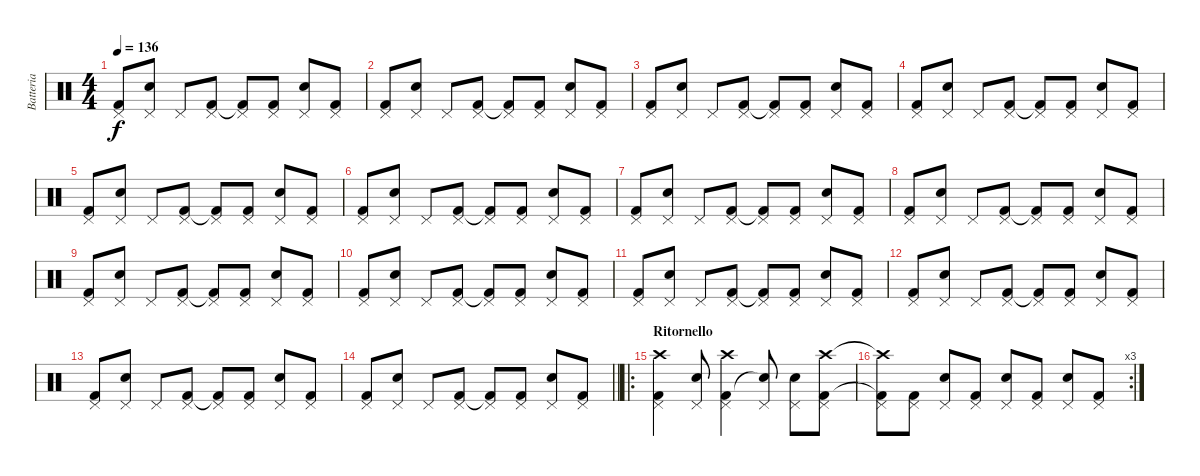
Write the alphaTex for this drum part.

\track ("Batteria" "Batteria") {instrument percussion}
\staff {score}
\articulation defaults
\ts (4 4)
\tempo 136
\clef neutral
\ks c
("Kick (hit) 2" "Pedal Hi-Hat (hit)").8{dy f} ("Electric Snare (hit)" "Pedal Hi-Hat (hit)").8 "Pedal Hi-Hat (hit)".8 ("Kick (hit) 2" "Pedal Hi-Hat (hit)").8 ("Kick (hit) 2"{t} "Pedal Hi-Hat (hit)").8 ("Kick (hit) 2" "Pedal Hi-Hat (hit)").8 ("Electric Snare (hit)" "Pedal Hi-Hat (hit)").8 ("Kick (hit) 2" "Pedal Hi-Hat (hit)").8 |
("Kick (hit) 2" "Pedal Hi-Hat (hit)").8 ("Electric Snare (hit)" "Pedal Hi-Hat (hit)").8 "Pedal Hi-Hat (hit)".8 ("Kick (hit) 2" "Pedal Hi-Hat (hit)").8 ("Kick (hit) 2"{t} "Pedal Hi-Hat (hit)").8 ("Kick (hit) 2" "Pedal Hi-Hat (hit)").8 ("Electric Snare (hit)" "Pedal Hi-Hat (hit)").8 ("Kick (hit) 2" "Pedal Hi-Hat (hit)").8 |
("Kick (hit) 2" "Pedal Hi-Hat (hit)").8 ("Electric Snare (hit)" "Pedal Hi-Hat (hit)").8 "Pedal Hi-Hat (hit)".8 ("Kick (hit) 2" "Pedal Hi-Hat (hit)").8 ("Kick (hit) 2"{t} "Pedal Hi-Hat (hit)").8 ("Kick (hit) 2" "Pedal Hi-Hat (hit)").8 ("Electric Snare (hit)" "Pedal Hi-Hat (hit)").8 ("Kick (hit) 2" "Pedal Hi-Hat (hit)").8 |
("Kick (hit) 2" "Pedal Hi-Hat (hit)").8 ("Electric Snare (hit)" "Pedal Hi-Hat (hit)").8 "Pedal Hi-Hat (hit)".8 ("Kick (hit) 2" "Pedal Hi-Hat (hit)").8 ("Kick (hit) 2"{t} "Pedal Hi-Hat (hit)").8 ("Kick (hit) 2" "Pedal Hi-Hat (hit)").8 ("Electric Snare (hit)" "Pedal Hi-Hat (hit)").8 ("Kick (hit) 2" "Pedal Hi-Hat (hit)").8 |
("Kick (hit) 2" "Pedal Hi-Hat (hit)").8 ("Electric Snare (hit)" "Pedal Hi-Hat (hit)").8 "Pedal Hi-Hat (hit)".8 ("Kick (hit) 2" "Pedal Hi-Hat (hit)").8 ("Kick (hit) 2"{t} "Pedal Hi-Hat (hit)").8 ("Kick (hit) 2" "Pedal Hi-Hat (hit)").8 ("Electric Snare (hit)" "Pedal Hi-Hat (hit)").8 ("Kick (hit) 2" "Pedal Hi-Hat (hit)").8 |
("Kick (hit) 2" "Pedal Hi-Hat (hit)").8 ("Electric Snare (hit)" "Pedal Hi-Hat (hit)").8 "Pedal Hi-Hat (hit)".8 ("Kick (hit) 2" "Pedal Hi-Hat (hit)").8 ("Kick (hit) 2"{t} "Pedal Hi-Hat (hit)").8 ("Kick (hit) 2" "Pedal Hi-Hat (hit)").8 ("Electric Snare (hit)" "Pedal Hi-Hat (hit)").8 ("Kick (hit) 2" "Pedal Hi-Hat (hit)").8 |
("Kick (hit) 2" "Pedal Hi-Hat (hit)").8 ("Electric Snare (hit)" "Pedal Hi-Hat (hit)").8 "Pedal Hi-Hat (hit)".8 ("Kick (hit) 2" "Pedal Hi-Hat (hit)").8 ("Kick (hit) 2"{t} "Pedal Hi-Hat (hit)").8 ("Kick (hit) 2" "Pedal Hi-Hat (hit)").8 ("Electric Snare (hit)" "Pedal Hi-Hat (hit)").8 ("Kick (hit) 2" "Pedal Hi-Hat (hit)").8 |
("Kick (hit) 2" "Pedal Hi-Hat (hit)").8 ("Electric Snare (hit)" "Pedal Hi-Hat (hit)").8 "Pedal Hi-Hat (hit)".8 ("Kick (hit) 2" "Pedal Hi-Hat (hit)").8 ("Kick (hit) 2"{t} "Pedal Hi-Hat (hit)").8 ("Kick (hit) 2" "Pedal Hi-Hat (hit)").8 ("Electric Snare (hit)" "Pedal Hi-Hat (hit)").8 ("Kick (hit) 2" "Pedal Hi-Hat (hit)").8 |
("Kick (hit) 2" "Pedal Hi-Hat (hit)").8 ("Electric Snare (hit)" "Pedal Hi-Hat (hit)").8 "Pedal Hi-Hat (hit)".8 ("Kick (hit) 2" "Pedal Hi-Hat (hit)").8 ("Kick (hit) 2"{t} "Pedal Hi-Hat (hit)").8 ("Kick (hit) 2" "Pedal Hi-Hat (hit)").8 ("Electric Snare (hit)" "Pedal Hi-Hat (hit)").8 ("Kick (hit) 2" "Pedal Hi-Hat (hit)").8 |
("Kick (hit) 2" "Pedal Hi-Hat (hit)").8 ("Electric Snare (hit)" "Pedal Hi-Hat (hit)").8 "Pedal Hi-Hat (hit)".8 ("Kick (hit) 2" "Pedal Hi-Hat (hit)").8 ("Kick (hit) 2"{t} "Pedal Hi-Hat (hit)").8 ("Kick (hit) 2" "Pedal Hi-Hat (hit)").8 ("Electric Snare (hit)" "Pedal Hi-Hat (hit)").8 ("Kick (hit) 2" "Pedal Hi-Hat (hit)").8 |
("Kick (hit) 2" "Pedal Hi-Hat (hit)").8 ("Electric Snare (hit)" "Pedal Hi-Hat (hit)").8 "Pedal Hi-Hat (hit)".8 ("Kick (hit) 2" "Pedal Hi-Hat (hit)").8 ("Kick (hit) 2"{t} "Pedal Hi-Hat (hit)").8 ("Kick (hit) 2" "Pedal Hi-Hat (hit)").8 ("Electric Snare (hit)" "Pedal Hi-Hat (hit)").8 ("Kick (hit) 2" "Pedal Hi-Hat (hit)").8 |
("Kick (hit) 2" "Pedal Hi-Hat (hit)").8 ("Electric Snare (hit)" "Pedal Hi-Hat (hit)").8 "Pedal Hi-Hat (hit)".8 ("Kick (hit) 2" "Pedal Hi-Hat (hit)").8 ("Kick (hit) 2"{t} "Pedal Hi-Hat (hit)").8 ("Kick (hit) 2" "Pedal Hi-Hat (hit)").8 ("Electric Snare (hit)" "Pedal Hi-Hat (hit)").8 ("Kick (hit) 2" "Pedal Hi-Hat (hit)").8 |
("Kick (hit) 2" "Pedal Hi-Hat (hit)").8 ("Electric Snare (hit)" "Pedal Hi-Hat (hit)").8 "Pedal Hi-Hat (hit)".8 ("Kick (hit) 2" "Pedal Hi-Hat (hit)").8 ("Kick (hit) 2"{t} "Pedal Hi-Hat (hit)").8 ("Kick (hit) 2" "Pedal Hi-Hat (hit)").8 ("Electric Snare (hit)" "Pedal Hi-Hat (hit)").8 ("Kick (hit) 2" "Pedal Hi-Hat (hit)").8 |
\barLineRight lightlight
("Kick (hit) 2" "Pedal Hi-Hat (hit)").8 ("Electric Snare (hit)" "Pedal Hi-Hat (hit)").8 "Pedal Hi-Hat (hit)".8 ("Kick (hit) 2" "Pedal Hi-Hat (hit)").8 ("Kick (hit) 2"{t} "Pedal Hi-Hat (hit)").8 ("Kick (hit) 2" "Pedal Hi-Hat (hit)").8 ("Electric Snare (hit)" "Pedal Hi-Hat (hit)").8 ("Kick (hit) 2" "Pedal Hi-Hat (hit)").8 |
\ro
\section ("" "Ritornello")
("Kick (hit) 2" "Crash high (hit)" "Pedal Hi-Hat (hit)").4 ("Electric Snare (hit)" "Pedal Hi-Hat (hit)").8 ("Kick (hit) 2" "Crash high (hit)" "Pedal Hi-Hat (hit)").4 ("Snare (hit)"{t} "Pedal Hi-Hat (hit)").8 ("Electric Snare (hit)" "Pedal Hi-Hat (hit)").8 ("Kick (hit) 2" "Crash high (hit)" "Pedal Hi-Hat (hit)").8 |
\rc 3
("Kick (hit) 2"{t} "Crash high (hit)"{t} "Pedal Hi-Hat (hit)").8 ("Kick (hit) 2" "Pedal Hi-Hat (hit)").8 ("Electric Snare (hit)" "Pedal Hi-Hat (hit)").8 ("Kick (hit) 2" "Pedal Hi-Hat (hit)").8 ("Electric Snare (hit)" "Pedal Hi-Hat (hit)").8 ("Kick (hit) 2" "Pedal Hi-Hat (hit)").8 ("Electric Snare (hit)" "Pedal Hi-Hat (hit)").8 ("Kick (hit) 2" "Pedal Hi-Hat (hit)").8
